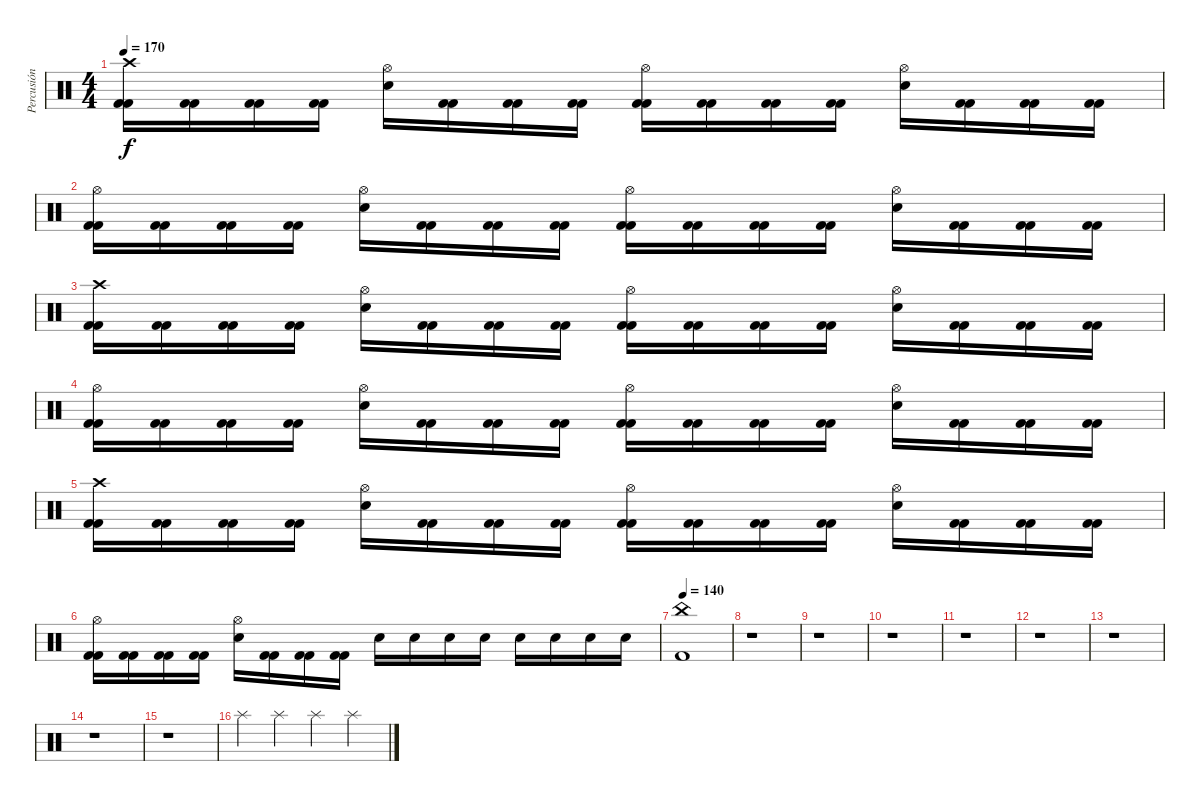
\track ("Percusión" "Percusión") {instrument percussion}
\staff {score}
\articulation defaults
\ts (4 4)
\tempo 170
\clef neutral
\ks c
("Crash high (hit)" "Kick (hit) 2" "Kick (hit) 2").16{dy f} ("Kick (hit) 2" "Kick (hit) 2").16 ("Kick (hit) 2" "Kick (hit) 2").16 ("Kick (hit) 2" "Kick (hit) 2").16 ("Hi-Hat (open)" "Electric Snare (hit)").16 ("Kick (hit) 2" "Kick (hit) 2").16 ("Kick (hit) 2" "Kick (hit) 2").16 ("Kick (hit) 2" "Kick (hit) 2").16 ("Hi-Hat (open)" "Kick (hit) 2" "Kick (hit) 2").16 ("Kick (hit) 2" "Kick (hit) 2").16 ("Kick (hit) 2" "Kick (hit) 2").16 ("Kick (hit) 2" "Kick (hit) 2").16 ("Hi-Hat (open)" "Electric Snare (hit)").16 ("Kick (hit) 2" "Kick (hit) 2").16 ("Kick (hit) 2" "Kick (hit) 2").16 ("Kick (hit) 2" "Kick (hit) 2").16 |
("Hi-Hat (open)" "Kick (hit) 2" "Kick (hit) 2").16 ("Kick (hit) 2" "Kick (hit) 2").16 ("Kick (hit) 2" "Kick (hit) 2").16 ("Kick (hit) 2" "Kick (hit) 2").16 ("Hi-Hat (open)" "Electric Snare (hit)").16 ("Kick (hit) 2" "Kick (hit) 2").16 ("Kick (hit) 2" "Kick (hit) 2").16 ("Kick (hit) 2" "Kick (hit) 2").16 ("Hi-Hat (open)" "Kick (hit) 2" "Kick (hit) 2").16 ("Kick (hit) 2" "Kick (hit) 2").16 ("Kick (hit) 2" "Kick (hit) 2").16 ("Kick (hit) 2" "Kick (hit) 2").16 ("Hi-Hat (open)" "Electric Snare (hit)").16 ("Kick (hit) 2" "Kick (hit) 2").16 ("Kick (hit) 2" "Kick (hit) 2").16 ("Kick (hit) 2" "Kick (hit) 2").16 |
("Crash high (hit)" "Kick (hit) 2" "Kick (hit) 2").16 ("Kick (hit) 2" "Kick (hit) 2").16 ("Kick (hit) 2" "Kick (hit) 2").16 ("Kick (hit) 2" "Kick (hit) 2").16 ("Hi-Hat (open)" "Electric Snare (hit)").16 ("Kick (hit) 2" "Kick (hit) 2").16 ("Kick (hit) 2" "Kick (hit) 2").16 ("Kick (hit) 2" "Kick (hit) 2").16 ("Hi-Hat (open)" "Kick (hit) 2" "Kick (hit) 2").16 ("Kick (hit) 2" "Kick (hit) 2").16 ("Kick (hit) 2" "Kick (hit) 2").16 ("Kick (hit) 2" "Kick (hit) 2").16 ("Hi-Hat (open)" "Electric Snare (hit)").16 ("Kick (hit) 2" "Kick (hit) 2").16 ("Kick (hit) 2" "Kick (hit) 2").16 ("Kick (hit) 2" "Kick (hit) 2").16 |
("Hi-Hat (open)" "Kick (hit) 2" "Kick (hit) 2").16 ("Kick (hit) 2" "Kick (hit) 2").16 ("Kick (hit) 2" "Kick (hit) 2").16 ("Kick (hit) 2" "Kick (hit) 2").16 ("Hi-Hat (open)" "Electric Snare (hit)").16 ("Kick (hit) 2" "Kick (hit) 2").16 ("Kick (hit) 2" "Kick (hit) 2").16 ("Kick (hit) 2" "Kick (hit) 2").16 ("Hi-Hat (open)" "Kick (hit) 2" "Kick (hit) 2").16 ("Kick (hit) 2" "Kick (hit) 2").16 ("Kick (hit) 2" "Kick (hit) 2").16 ("Kick (hit) 2" "Kick (hit) 2").16 ("Hi-Hat (open)" "Electric Snare (hit)").16 ("Kick (hit) 2" "Kick (hit) 2").16 ("Kick (hit) 2" "Kick (hit) 2").16 ("Kick (hit) 2" "Kick (hit) 2").16 |
("Crash high (hit)" "Kick (hit) 2" "Kick (hit) 2").16 ("Kick (hit) 2" "Kick (hit) 2").16 ("Kick (hit) 2" "Kick (hit) 2").16 ("Kick (hit) 2" "Kick (hit) 2").16 ("Hi-Hat (open)" "Electric Snare (hit)").16 ("Kick (hit) 2" "Kick (hit) 2").16 ("Kick (hit) 2" "Kick (hit) 2").16 ("Kick (hit) 2" "Kick (hit) 2").16 ("Hi-Hat (open)" "Kick (hit) 2" "Kick (hit) 2").16 ("Kick (hit) 2" "Kick (hit) 2").16 ("Kick (hit) 2" "Kick (hit) 2").16 ("Kick (hit) 2" "Kick (hit) 2").16 ("Hi-Hat (open)" "Electric Snare (hit)").16 ("Kick (hit) 2" "Kick (hit) 2").16 ("Kick (hit) 2" "Kick (hit) 2").16 ("Kick (hit) 2" "Kick (hit) 2").16 |
("Hi-Hat (open)" "Kick (hit) 2" "Kick (hit) 2").16 ("Kick (hit) 2" "Kick (hit) 2").16 ("Kick (hit) 2" "Kick (hit) 2").16 ("Kick (hit) 2" "Kick (hit) 2").16 ("Hi-Hat (open)" "Electric Snare (hit)").16 ("Kick (hit) 2" "Kick (hit) 2").16 ("Kick (hit) 2" "Kick (hit) 2").16 ("Kick (hit) 2" "Kick (hit) 2").16 "Electric Snare (hit)".16 "Electric Snare (hit)".16 "Electric Snare (hit)".16 "Electric Snare (hit)".16 "Electric Snare (hit)".16 "Electric Snare (hit)".16 "Electric Snare (hit)".16 "Electric Snare (hit)".16 |
\tempo 140
("China (hit)" "Kick (hit) 2").1 |
r.1 |
r.1 |
r.1 |
r.1 |
r.1 |
r.1 |
r.1 |
r.1 |
"Splash (hit)".4 "Splash (hit)".4 "Splash (hit)".4 "Splash (hit)".4
